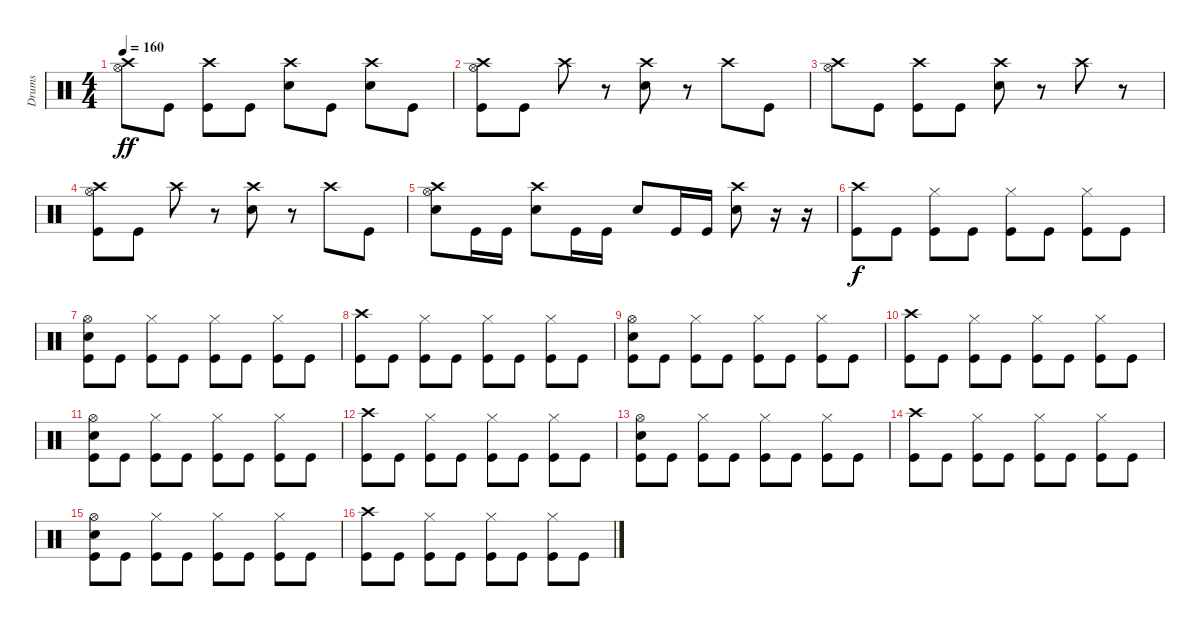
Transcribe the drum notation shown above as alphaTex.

\track ("Drums" "Drums") {instrument percussion}
\staff {score}
\articulation defaults
\ts (4 4)
\tempo 160
\clef neutral
\ks c
("Hi-Hat (open)" "Crash high (hit)").8{dy ff} "Kick (hit)".8 ("Crash high (hit)" "Kick (hit)").8 "Kick (hit)".8 ("Crash high (hit)" "Electric Snare (hit)").8 "Kick (hit)".8 ("Crash high (hit)" "Electric Snare (hit)").8 "Kick (hit)".8 |
("Hi-Hat (open)" "Crash high (hit)" "Kick (hit)").8 "Kick (hit)".8 "Crash high (hit)".8 r.8 ("Crash high (hit)" "Electric Snare (hit)").8 r.8 "Crash high (hit)".8 "Kick (hit)".8 |
("Hi-Hat (open)" "Crash high (hit)").8 "Kick (hit)".8 ("Crash high (hit)" "Kick (hit)").8 "Kick (hit)".8 ("Crash high (hit)" "Electric Snare (hit)").8 r.8 "Crash high (hit)".8 r.8 |
("Hi-Hat (open)" "Crash high (hit)" "Kick (hit)").8 "Kick (hit)".8 "Crash high (hit)".8 r.8 ("Crash high (hit)" "Electric Snare (hit)").8 r.8 "Crash high (hit)".8 "Kick (hit)".8 |
("Hi-Hat (open)" "Crash high (hit)" "Electric Snare (hit)").8 "Kick (hit)".16 "Kick (hit)".16 ("Crash high (hit)" "Electric Snare (hit)").8 "Kick (hit)".16 "Kick (hit)".16 "Electric Snare (hit)".8 "Kick (hit)".16 "Kick (hit)".16 ("Crash high (hit)" "Electric Snare (hit)").8 r.16 r.16 |
("Crash high (hit)" "Kick (hit)").8{dy f} "Kick (hit)".8 ("Hi-Hat (closed)" "Kick (hit)").8 "Kick (hit)".8 ("Hi-Hat (closed)" "Kick (hit)").8 "Kick (hit)".8 ("Hi-Hat (closed)" "Kick (hit)").8 "Kick (hit)".8 |
("Hi-Hat (open)" "Electric Snare (hit)" "Kick (hit)").8 "Kick (hit)".8 ("Hi-Hat (closed)" "Kick (hit)").8 "Kick (hit)".8 ("Hi-Hat (closed)" "Kick (hit)").8 "Kick (hit)".8 ("Hi-Hat (closed)" "Kick (hit)").8 "Kick (hit)".8 |
("Crash high (hit)" "Kick (hit)").8 "Kick (hit)".8 ("Hi-Hat (closed)" "Kick (hit)").8 "Kick (hit)".8 ("Hi-Hat (closed)" "Kick (hit)").8 "Kick (hit)".8 ("Hi-Hat (closed)" "Kick (hit)").8 "Kick (hit)".8 |
("Hi-Hat (open)" "Electric Snare (hit)" "Kick (hit)").8 "Kick (hit)".8 ("Hi-Hat (closed)" "Kick (hit)").8 "Kick (hit)".8 ("Hi-Hat (closed)" "Kick (hit)").8 "Kick (hit)".8 ("Hi-Hat (closed)" "Kick (hit)").8 "Kick (hit)".8 |
("Crash high (hit)" "Kick (hit)").8 "Kick (hit)".8 ("Hi-Hat (closed)" "Kick (hit)").8 "Kick (hit)".8 ("Hi-Hat (closed)" "Kick (hit)").8 "Kick (hit)".8 ("Hi-Hat (closed)" "Kick (hit)").8 "Kick (hit)".8 |
("Hi-Hat (open)" "Electric Snare (hit)" "Kick (hit)").8 "Kick (hit)".8 ("Hi-Hat (closed)" "Kick (hit)").8 "Kick (hit)".8 ("Hi-Hat (closed)" "Kick (hit)").8 "Kick (hit)".8 ("Hi-Hat (closed)" "Kick (hit)").8 "Kick (hit)".8 |
("Crash high (hit)" "Kick (hit)").8 "Kick (hit)".8 ("Hi-Hat (closed)" "Kick (hit)").8 "Kick (hit)".8 ("Hi-Hat (closed)" "Kick (hit)").8 "Kick (hit)".8 ("Hi-Hat (closed)" "Kick (hit)").8 "Kick (hit)".8 |
("Hi-Hat (open)" "Electric Snare (hit)" "Kick (hit)").8 "Kick (hit)".8 ("Hi-Hat (closed)" "Kick (hit)").8 "Kick (hit)".8 ("Hi-Hat (closed)" "Kick (hit)").8 "Kick (hit)".8 ("Hi-Hat (closed)" "Kick (hit)").8 "Kick (hit)".8 |
("Crash high (hit)" "Kick (hit)").8 "Kick (hit)".8 ("Hi-Hat (closed)" "Kick (hit)").8 "Kick (hit)".8 ("Hi-Hat (closed)" "Kick (hit)").8 "Kick (hit)".8 ("Hi-Hat (closed)" "Kick (hit)").8 "Kick (hit)".8 |
("Hi-Hat (open)" "Electric Snare (hit)" "Kick (hit)").8 "Kick (hit)".8 ("Hi-Hat (closed)" "Kick (hit)").8 "Kick (hit)".8 ("Hi-Hat (closed)" "Kick (hit)").8 "Kick (hit)".8 ("Hi-Hat (closed)" "Kick (hit)").8 "Kick (hit)".8 |
("Crash high (hit)" "Kick (hit)").8 "Kick (hit)".8 ("Hi-Hat (closed)" "Kick (hit)").8 "Kick (hit)".8 ("Hi-Hat (closed)" "Kick (hit)").8 "Kick (hit)".8 ("Hi-Hat (closed)" "Kick (hit)").8 "Kick (hit)".8
